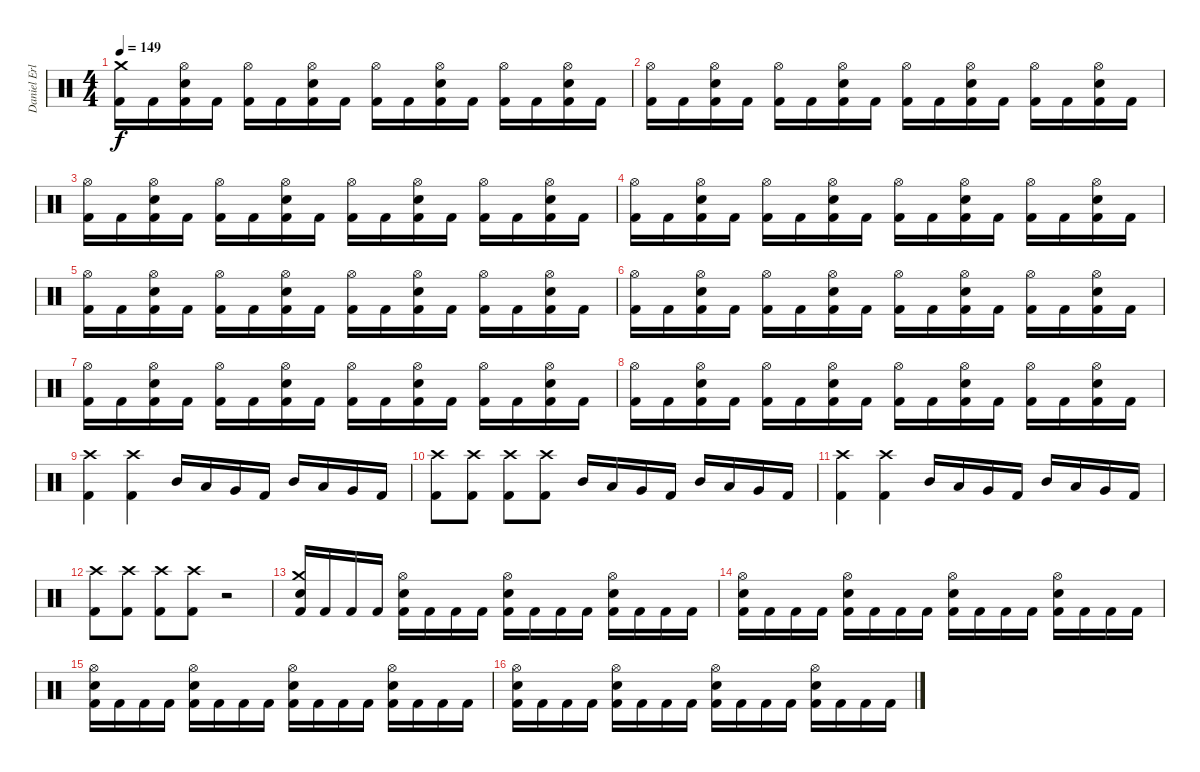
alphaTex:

\track ("Daniel Erlandsson" "Daniel Erl") {instrument percussion}
\staff {score}
\articulation defaults
\ts (4 4)
\tempo 149
\clef neutral
\ks c
("Kick (hit) 2" "Crash medium (hit)").16{dy f} "Kick (hit) 2".16 ("Kick (hit) 2" "Electric Snare (hit)" "Hi-Hat (open)").16 "Kick (hit) 2".16 ("Kick (hit) 2" "Hi-Hat (open)").16 "Kick (hit) 2".16 ("Kick (hit) 2" "Electric Snare (hit)" "Hi-Hat (open)").16 "Kick (hit) 2".16 ("Kick (hit) 2" "Hi-Hat (open)").16 "Kick (hit) 2".16 ("Kick (hit) 2" "Electric Snare (hit)" "Hi-Hat (open)").16 "Kick (hit) 2".16 ("Kick (hit) 2" "Hi-Hat (open)").16 "Kick (hit) 2".16 ("Kick (hit) 2" "Electric Snare (hit)" "Hi-Hat (open)").16 "Kick (hit) 2".16 |
("Kick (hit) 2" "Hi-Hat (open)").16 "Kick (hit) 2".16 ("Kick (hit) 2" "Electric Snare (hit)" "Hi-Hat (open)").16 "Kick (hit) 2".16 ("Kick (hit) 2" "Hi-Hat (open)").16 "Kick (hit) 2".16 ("Kick (hit) 2" "Electric Snare (hit)" "Hi-Hat (open)").16 "Kick (hit) 2".16 ("Kick (hit) 2" "Hi-Hat (open)").16 "Kick (hit) 2".16 ("Kick (hit) 2" "Electric Snare (hit)" "Hi-Hat (open)").16 "Kick (hit) 2".16 ("Kick (hit) 2" "Hi-Hat (open)").16 "Kick (hit) 2".16 ("Kick (hit) 2" "Electric Snare (hit)" "Hi-Hat (open)").16 "Kick (hit) 2".16 |
("Kick (hit) 2" "Hi-Hat (open)").16 "Kick (hit) 2".16 ("Kick (hit) 2" "Electric Snare (hit)" "Hi-Hat (open)").16 "Kick (hit) 2".16 ("Kick (hit) 2" "Hi-Hat (open)").16 "Kick (hit) 2".16 ("Kick (hit) 2" "Electric Snare (hit)" "Hi-Hat (open)").16 "Kick (hit) 2".16 ("Kick (hit) 2" "Hi-Hat (open)").16 "Kick (hit) 2".16 ("Kick (hit) 2" "Electric Snare (hit)" "Hi-Hat (open)").16 "Kick (hit) 2".16 ("Kick (hit) 2" "Hi-Hat (open)").16 "Kick (hit) 2".16 ("Kick (hit) 2" "Electric Snare (hit)" "Hi-Hat (open)").16 "Kick (hit) 2".16 |
("Kick (hit) 2" "Hi-Hat (open)").16 "Kick (hit) 2".16 ("Kick (hit) 2" "Electric Snare (hit)" "Hi-Hat (open)").16 "Kick (hit) 2".16 ("Kick (hit) 2" "Hi-Hat (open)").16 "Kick (hit) 2".16 ("Kick (hit) 2" "Electric Snare (hit)" "Hi-Hat (open)").16 "Kick (hit) 2".16 ("Kick (hit) 2" "Hi-Hat (open)").16 "Kick (hit) 2".16 ("Kick (hit) 2" "Electric Snare (hit)" "Hi-Hat (open)").16 "Kick (hit) 2".16 ("Kick (hit) 2" "Hi-Hat (open)").16 "Kick (hit) 2".16 ("Kick (hit) 2" "Electric Snare (hit)" "Hi-Hat (open)").16 "Kick (hit) 2".16 |
("Kick (hit) 2" "Hi-Hat (open)").16 "Kick (hit) 2".16 ("Kick (hit) 2" "Electric Snare (hit)" "Hi-Hat (open)").16 "Kick (hit) 2".16 ("Kick (hit) 2" "Hi-Hat (open)").16 "Kick (hit) 2".16 ("Kick (hit) 2" "Electric Snare (hit)" "Hi-Hat (open)").16 "Kick (hit) 2".16 ("Kick (hit) 2" "Hi-Hat (open)").16 "Kick (hit) 2".16 ("Kick (hit) 2" "Electric Snare (hit)" "Hi-Hat (open)").16 "Kick (hit) 2".16 ("Kick (hit) 2" "Hi-Hat (open)").16 "Kick (hit) 2".16 ("Kick (hit) 2" "Electric Snare (hit)" "Hi-Hat (open)").16 "Kick (hit) 2".16 |
("Kick (hit) 2" "Hi-Hat (open)").16 "Kick (hit) 2".16 ("Kick (hit) 2" "Electric Snare (hit)" "Hi-Hat (open)").16 "Kick (hit) 2".16 ("Kick (hit) 2" "Hi-Hat (open)").16 "Kick (hit) 2".16 ("Kick (hit) 2" "Electric Snare (hit)" "Hi-Hat (open)").16 "Kick (hit) 2".16 ("Kick (hit) 2" "Hi-Hat (open)").16 "Kick (hit) 2".16 ("Kick (hit) 2" "Electric Snare (hit)" "Hi-Hat (open)").16 "Kick (hit) 2".16 ("Kick (hit) 2" "Hi-Hat (open)").16 "Kick (hit) 2".16 ("Kick (hit) 2" "Electric Snare (hit)" "Hi-Hat (open)").16 "Kick (hit) 2".16 |
("Kick (hit) 2" "Hi-Hat (open)").16 "Kick (hit) 2".16 ("Kick (hit) 2" "Electric Snare (hit)" "Hi-Hat (open)").16 "Kick (hit) 2".16 ("Kick (hit) 2" "Hi-Hat (open)").16 "Kick (hit) 2".16 ("Kick (hit) 2" "Electric Snare (hit)" "Hi-Hat (open)").16 "Kick (hit) 2".16 ("Kick (hit) 2" "Hi-Hat (open)").16 "Kick (hit) 2".16 ("Kick (hit) 2" "Electric Snare (hit)" "Hi-Hat (open)").16 "Kick (hit) 2".16 ("Kick (hit) 2" "Hi-Hat (open)").16 "Kick (hit) 2".16 ("Kick (hit) 2" "Electric Snare (hit)" "Hi-Hat (open)").16 "Kick (hit) 2".16 |
("Kick (hit) 2" "Hi-Hat (open)").16 "Kick (hit) 2".16 ("Kick (hit) 2" "Electric Snare (hit)" "Hi-Hat (open)").16 "Kick (hit) 2".16 ("Kick (hit) 2" "Hi-Hat (open)").16 "Kick (hit) 2".16 ("Kick (hit) 2" "Electric Snare (hit)" "Hi-Hat (open)").16 "Kick (hit) 2".16 ("Kick (hit) 2" "Hi-Hat (open)").16 "Kick (hit) 2".16 ("Kick (hit) 2" "Electric Snare (hit)" "Hi-Hat (open)").16 "Kick (hit) 2".16 ("Kick (hit) 2" "Hi-Hat (open)").16 "Kick (hit) 2".16 ("Kick (hit) 2" "Electric Snare (hit)" "Hi-Hat (open)").16 "Kick (hit) 2".16 |
("Kick (hit) 2" "Crash high (hit)").4 ("Kick (hit) 2" "Crash high (hit)").4 "Mid Tom (hit)".16 "Low Tom (hit)".16 "Very Low Tom (hit)".16 "Kick (hit) 2".16 "Mid Tom (hit)".16 "Low Tom (hit)".16 "Very Low Tom (hit)".16 "Kick (hit) 2".16 |
("Kick (hit) 2" "Crash high (hit)").8 ("Kick (hit) 2" "Crash high (hit)").8 ("Kick (hit) 2" "Crash high (hit)").8 ("Kick (hit) 2" "Crash high (hit)").8 "Mid Tom (hit)".16 "Low Tom (hit)".16 "Very Low Tom (hit)".16 "Kick (hit) 2".16 "Mid Tom (hit)".16 "Low Tom (hit)".16 "Very Low Tom (hit)".16 "Kick (hit) 2".16 |
("Kick (hit) 2" "Crash high (hit)").4 ("Kick (hit) 2" "Crash high (hit)").4 "Mid Tom (hit)".16 "Low Tom (hit)".16 "Very Low Tom (hit)".16 "Kick (hit) 2".16 "Mid Tom (hit)".16 "Low Tom (hit)".16 "Very Low Tom (hit)".16 "Kick (hit) 2".16 |
("Kick (hit) 2" "Crash high (hit)").8 ("Kick (hit) 2" "Crash high (hit)").8 ("Kick (hit) 2" "Crash high (hit)").8 ("Kick (hit) 2" "Crash high (hit)").8 r.2 |
("Kick (hit) 2" "Electric Snare (hit)" "Crash medium (hit)").16 "Kick (hit) 2".16 "Kick (hit) 2".16 "Kick (hit) 2".16 ("Kick (hit) 2" "Electric Snare (hit)" "Hi-Hat (open)").16 "Kick (hit) 2".16 "Kick (hit) 2".16 "Kick (hit) 2".16 ("Kick (hit) 2" "Electric Snare (hit)" "Hi-Hat (open)").16 "Kick (hit) 2".16 "Kick (hit) 2".16 "Kick (hit) 2".16 ("Kick (hit) 2" "Electric Snare (hit)" "Hi-Hat (open)").16 "Kick (hit) 2".16 "Kick (hit) 2".16 "Kick (hit) 2".16 |
("Kick (hit) 2" "Electric Snare (hit)" "Hi-Hat (open)").16 "Kick (hit) 2".16 "Kick (hit) 2".16 "Kick (hit) 2".16 ("Kick (hit) 2" "Electric Snare (hit)" "Hi-Hat (open)").16 "Kick (hit) 2".16 "Kick (hit) 2".16 "Kick (hit) 2".16 ("Kick (hit) 2" "Electric Snare (hit)" "Hi-Hat (open)").16 "Kick (hit) 2".16 "Kick (hit) 2".16 "Kick (hit) 2".16 ("Kick (hit) 2" "Electric Snare (hit)" "Hi-Hat (open)").16 "Kick (hit) 2".16 "Kick (hit) 2".16 "Kick (hit) 2".16 |
("Kick (hit) 2" "Electric Snare (hit)" "Hi-Hat (open)").16 "Kick (hit) 2".16 "Kick (hit) 2".16 "Kick (hit) 2".16 ("Kick (hit) 2" "Electric Snare (hit)" "Hi-Hat (open)").16 "Kick (hit) 2".16 "Kick (hit) 2".16 "Kick (hit) 2".16 ("Kick (hit) 2" "Electric Snare (hit)" "Hi-Hat (open)").16 "Kick (hit) 2".16 "Kick (hit) 2".16 "Kick (hit) 2".16 ("Kick (hit) 2" "Electric Snare (hit)" "Hi-Hat (open)").16 "Kick (hit) 2".16 "Kick (hit) 2".16 "Kick (hit) 2".16 |
("Kick (hit) 2" "Electric Snare (hit)" "Hi-Hat (open)").16 "Kick (hit) 2".16 "Kick (hit) 2".16 "Kick (hit) 2".16 ("Kick (hit) 2" "Electric Snare (hit)" "Hi-Hat (open)").16 "Kick (hit) 2".16 "Kick (hit) 2".16 "Kick (hit) 2".16 ("Kick (hit) 2" "Electric Snare (hit)" "Hi-Hat (open)").16 "Kick (hit) 2".16 "Kick (hit) 2".16 "Kick (hit) 2".16 ("Kick (hit) 2" "Electric Snare (hit)" "Hi-Hat (open)").16 "Kick (hit) 2".16 "Kick (hit) 2".16 "Kick (hit) 2".16
